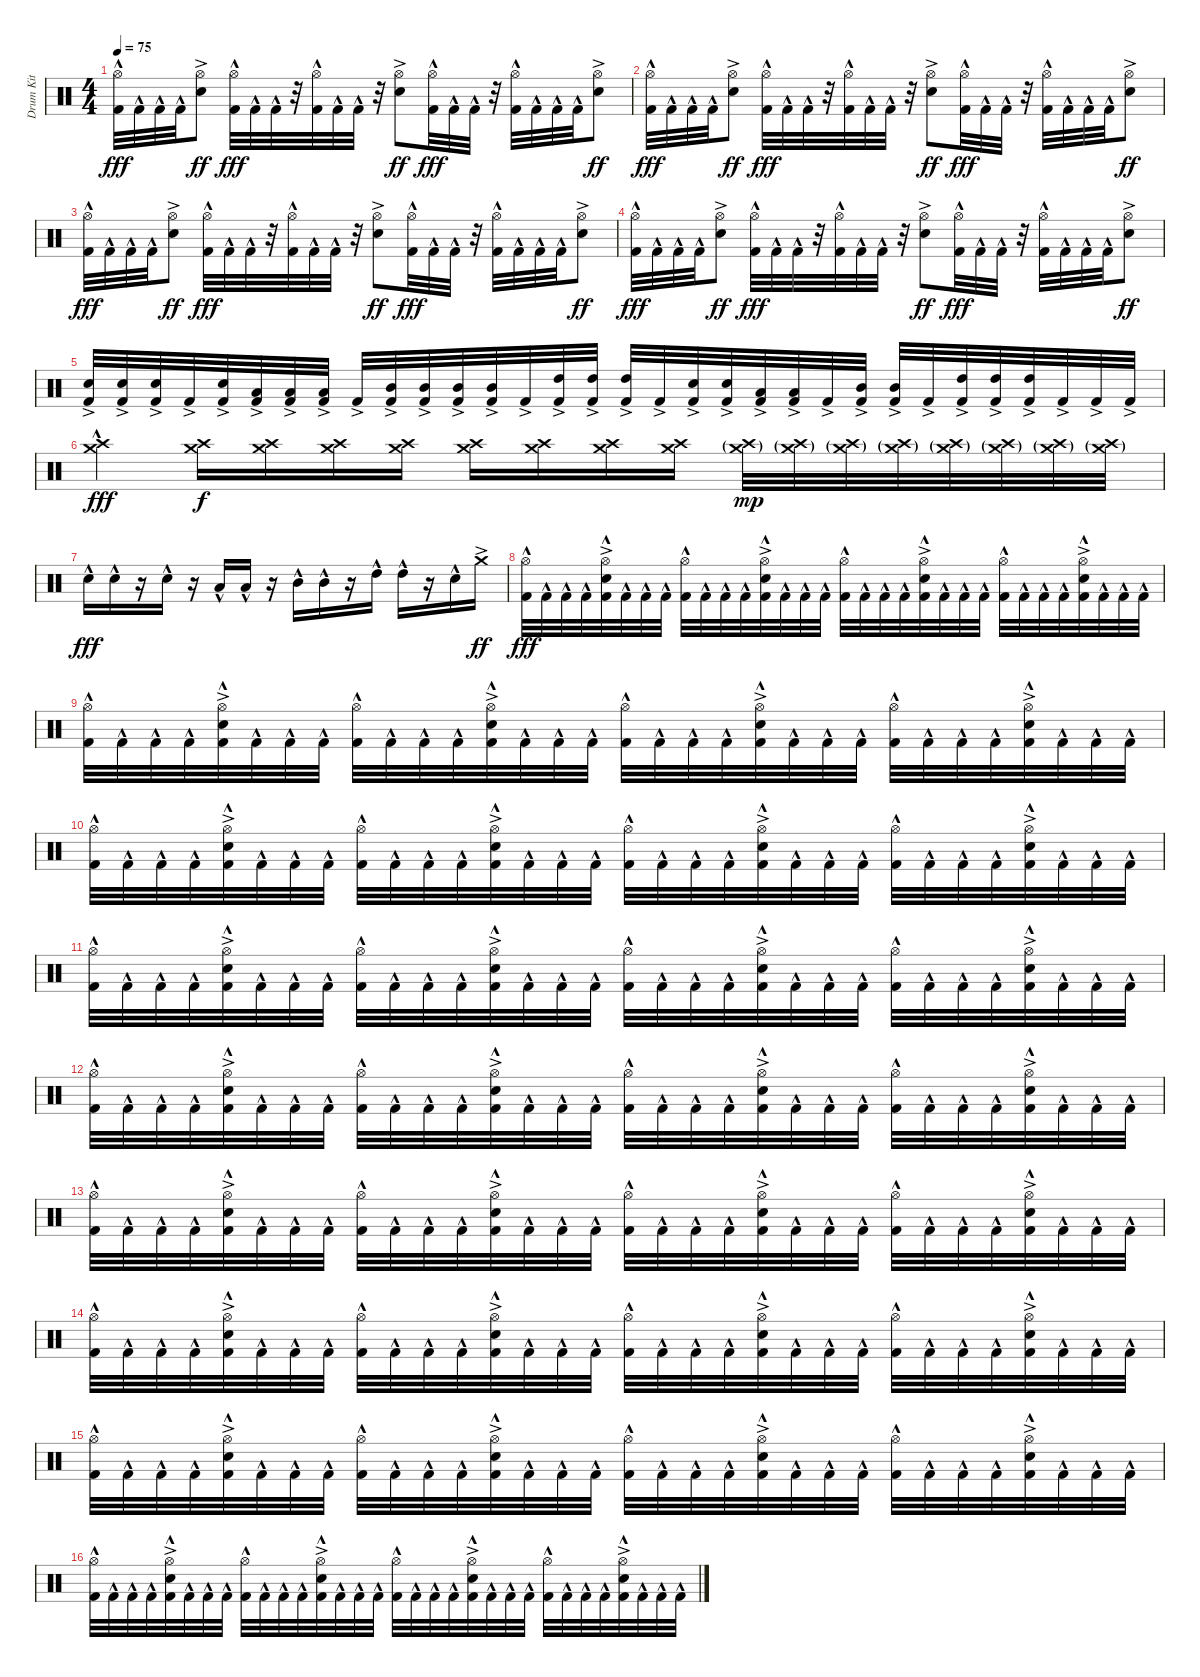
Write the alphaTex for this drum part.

\track ("Drum Kit" "Drum Kit") {instrument percussion}
\staff {score}
\articulation defaults
\ts (4 4)
\tempo 75
\clef neutral
\ks c
("Hi-Hat (open)" "Kick (hit) 2"{hac}).32{dy fff} "Kick (hit) 2"{hac}.32 "Kick (hit) 2"{hac}.32 "Kick (hit) 2"{hac}.32 ("Hi-Hat (open)" "Snare (hit) 2"{ac}).8{dy ff} ("Hi-Hat (open)" "Kick (hit) 2"{hac}).32{dy fff} "Kick (hit) 2"{hac}.32 "Kick (hit) 2"{hac}.32 r.32 ("Hi-Hat (open)" "Kick (hit) 2"{hac}).32 "Kick (hit) 2"{hac}.32 "Kick (hit) 2"{hac}.32 r.32 ("Hi-Hat (open)" "Snare (hit) 2"{ac}).8{dy ff} ("Hi-Hat (open)" "Kick (hit) 2"{hac}).32{dy fff} "Kick (hit) 2"{hac}.32 "Kick (hit) 2"{hac}.32 r.32 ("Hi-Hat (open)" "Kick (hit) 2"{hac}).32 "Kick (hit) 2"{hac}.32 "Kick (hit) 2"{hac}.32 "Kick (hit) 2"{hac}.32 ("Hi-Hat (open)" "Snare (hit) 2"{ac}).8{dy ff} |
("Hi-Hat (open)" "Kick (hit) 2"{hac}).32{dy fff} "Kick (hit) 2"{hac}.32 "Kick (hit) 2"{hac}.32 "Kick (hit) 2"{hac}.32 ("Hi-Hat (open)" "Snare (hit) 2"{ac}).8{dy ff} ("Hi-Hat (open)" "Kick (hit) 2"{hac}).32{dy fff} "Kick (hit) 2"{hac}.32 "Kick (hit) 2"{hac}.32 r.32 ("Hi-Hat (open)" "Kick (hit) 2"{hac}).32 "Kick (hit) 2"{hac}.32 "Kick (hit) 2"{hac}.32 r.32 ("Hi-Hat (open)" "Snare (hit) 2"{ac}).8{dy ff} ("Hi-Hat (open)" "Kick (hit) 2"{hac}).32{dy fff} "Kick (hit) 2"{hac}.32 "Kick (hit) 2"{hac}.32 r.32 ("Hi-Hat (open)" "Kick (hit) 2"{hac}).32 "Kick (hit) 2"{hac}.32 "Kick (hit) 2"{hac}.32 "Kick (hit) 2"{hac}.32 ("Hi-Hat (open)" "Snare (hit) 2"{ac}).8{dy ff} |
("Hi-Hat (open)" "Kick (hit) 2"{hac}).32{dy fff} "Kick (hit) 2"{hac}.32 "Kick (hit) 2"{hac}.32 "Kick (hit) 2"{hac}.32 ("Hi-Hat (open)" "Snare (hit) 2"{ac}).8{dy ff} ("Hi-Hat (open)" "Kick (hit) 2"{hac}).32{dy fff} "Kick (hit) 2"{hac}.32 "Kick (hit) 2"{hac}.32 r.32 ("Hi-Hat (open)" "Kick (hit) 2"{hac}).32 "Kick (hit) 2"{hac}.32 "Kick (hit) 2"{hac}.32 r.32 ("Hi-Hat (open)" "Snare (hit) 2"{ac}).8{dy ff} ("Hi-Hat (open)" "Kick (hit) 2"{hac}).32{dy fff} "Kick (hit) 2"{hac}.32 "Kick (hit) 2"{hac}.32 r.32 ("Hi-Hat (open)" "Kick (hit) 2"{hac}).32 "Kick (hit) 2"{hac}.32 "Kick (hit) 2"{hac}.32 "Kick (hit) 2"{hac}.32 ("Hi-Hat (open)" "Snare (hit) 2"{ac}).8{dy ff} |
("Hi-Hat (open)" "Kick (hit) 2"{hac}).32{dy fff} "Kick (hit) 2"{hac}.32 "Kick (hit) 2"{hac}.32 "Kick (hit) 2"{hac}.32 ("Hi-Hat (open)" "Snare (hit) 2"{ac}).8{dy ff} ("Hi-Hat (open)" "Kick (hit) 2"{hac}).32{dy fff} "Kick (hit) 2"{hac}.32 "Kick (hit) 2"{hac}.32 r.32 ("Hi-Hat (open)" "Kick (hit) 2"{hac}).32 "Kick (hit) 2"{hac}.32 "Kick (hit) 2"{hac}.32 r.32 ("Hi-Hat (open)" "Snare (hit) 2"{ac}).8{dy ff} ("Hi-Hat (open)" "Kick (hit) 2"{hac}).32{dy fff} "Kick (hit) 2"{hac}.32 "Kick (hit) 2"{hac}.32 r.32 ("Hi-Hat (open)" "Kick (hit) 2"{hac}).32 "Kick (hit) 2"{hac}.32 "Kick (hit) 2"{hac}.32 "Kick (hit) 2"{hac}.32 ("Hi-Hat (open)" "Snare (hit) 2"{ac}).8{dy ff} |
("Snare (hit) 2"{ac} "Kick (hit) 2"{ac}).32 ("Snare (hit) 2"{ac} "Kick (hit) 2"{ac}).32 ("Snare (hit) 2"{ac} "Kick (hit) 2"{ac}).32 "Kick (hit) 2"{ac}.32 ("Snare (hit) 2"{ac} "Kick (hit) 2"{ac}).32 ("Low Tom (hit)"{ac} "Kick (hit) 2"{ac}).32 ("Low Tom (hit)"{ac} "Kick (hit) 2"{ac}).32 ("Low Tom (hit)"{ac} "Kick (hit) 2"{ac}).32 "Kick (hit) 2"{ac}.32 ("Mid Tom (hit)"{ac} "Kick (hit) 2"{ac}).32 ("Mid Tom (hit)"{ac} "Kick (hit) 2"{ac}).32 ("Mid Tom (hit)"{ac} "Kick (hit) 2"{ac}).32 ("Mid Tom (hit)"{ac} "Kick (hit) 2"{ac}).32 "Kick (hit) 2"{ac}.32 ("High Tom (hit)"{ac} "Kick (hit) 2"{ac}).32 ("High Tom (hit)"{ac} "Kick (hit) 2"{ac}).32 ("High Tom (hit)"{ac} "Kick (hit) 2"{ac}).32 "Kick (hit) 2"{ac}.32 ("Snare (hit) 2"{ac} "Kick (hit) 2"{ac}).32 ("Snare (hit) 2"{ac} "Kick (hit) 2"{ac}).32 ("Low Tom (hit)"{ac} "Kick (hit) 2"{ac}).32 ("Low Tom (hit)"{ac} "Kick (hit) 2"{ac}).32 "Kick (hit) 2"{ac}.32 ("Mid Tom (hit)"{ac} "Kick (hit) 2"{ac}).32 ("Mid Tom (hit)"{ac} "Kick (hit) 2"{ac}).32 "Kick (hit) 2"{ac}.32 ("High Tom (hit)"{ac} "Kick (hit) 2"{ac}).32 ("High Tom (hit)"{ac} "Kick (hit) 2"{ac}).32 ("High Tom (hit)"{ac} "Kick (hit) 2"{ac}).32 "Kick (hit) 2"{ac}.32 "Kick (hit) 2"{ac}.32 "Kick (hit) 2"{ac}.32 |
("Crash medium (hit)"{hac} "Crash high (hit)"{hac}).4{dy fff} ("Crash high (hit)" "Crash medium (hit)").16{dy f} ("Crash high (hit)" "Crash medium (hit)").16 ("Crash high (hit)" "Crash medium (hit)").16 ("Crash high (hit)" "Crash medium (hit)").16 ("Crash high (hit)" "Crash medium (hit)").16 ("Crash high (hit)" "Crash medium (hit)").16 ("Crash high (hit)" "Crash medium (hit)").16 ("Crash high (hit)" "Crash medium (hit)").16 ("Crash high (hit)"{g} "Crash medium (hit)"{g}).32{dy mp} ("Crash high (hit)"{g} "Crash medium (hit)"{g}).32 ("Crash high (hit)"{g} "Crash medium (hit)"{g}).32 ("Crash high (hit)"{g} "Crash medium (hit)"{g}).32 ("Crash high (hit)"{g} "Crash medium (hit)"{g}).32 ("Crash high (hit)"{g} "Crash medium (hit)"{g}).32 ("Crash high (hit)"{g} "Crash medium (hit)"{g}).32 ("Crash high (hit)"{g} "Crash medium (hit)"{g}).32 |
"Snare (hit) 2"{hac}.16{dy fff} "Snare (hit) 2"{hac}.16 r.16 "Snare (hit) 2"{hac}.16 r.16 "Low Tom (hit)"{hac}.16 "Low Tom (hit)"{hac}.16 r.16 "Mid Tom (hit)"{hac}.16 "Mid Tom (hit)"{hac}.16 r.16 "High Tom (hit)"{hac}.16 "High Tom (hit)"{hac}.16 r.16 "Snare (hit) 2"{hac}.16 "Crash medium (hit)"{ac}.16{dy ff} |
("Hi-Hat (open)" "Kick (hit) 2"{hac}).32{dy fff} "Kick (hit) 2"{hac}.32 "Kick (hit) 2"{hac}.32 "Kick (hit) 2"{hac}.32 ("Hi-Hat (open)" "Snare (hit) 2"{ac} "Kick (hit) 2"{hac}).32 "Kick (hit) 2"{hac}.32 "Kick (hit) 2"{hac}.32 "Kick (hit) 2"{hac}.32 ("Hi-Hat (open)" "Kick (hit) 2"{hac}).32 "Kick (hit) 2"{hac}.32 "Kick (hit) 2"{hac}.32 "Kick (hit) 2"{hac}.32 ("Hi-Hat (open)" "Snare (hit) 2"{ac} "Kick (hit) 2"{hac}).32 "Kick (hit) 2"{hac}.32 "Kick (hit) 2"{hac}.32 "Kick (hit) 2"{hac}.32 ("Hi-Hat (open)" "Kick (hit) 2"{hac}).32 "Kick (hit) 2"{hac}.32 "Kick (hit) 2"{hac}.32 "Kick (hit) 2"{hac}.32 ("Hi-Hat (open)" "Snare (hit) 2"{ac} "Kick (hit) 2"{hac}).32 "Kick (hit) 2"{hac}.32 "Kick (hit) 2"{hac}.32 "Kick (hit) 2"{hac}.32 ("Hi-Hat (open)" "Kick (hit) 2"{hac}).32 "Kick (hit) 2"{hac}.32 "Kick (hit) 2"{hac}.32 "Kick (hit) 2"{hac}.32 ("Hi-Hat (open)" "Snare (hit) 2"{ac} "Kick (hit) 2"{hac}).32 "Kick (hit) 2"{hac}.32 "Kick (hit) 2"{hac}.32 "Kick (hit) 2"{hac}.32 |
("Hi-Hat (open)" "Kick (hit) 2"{hac}).32 "Kick (hit) 2"{hac}.32 "Kick (hit) 2"{hac}.32 "Kick (hit) 2"{hac}.32 ("Hi-Hat (open)" "Snare (hit) 2"{ac} "Kick (hit) 2"{hac}).32 "Kick (hit) 2"{hac}.32 "Kick (hit) 2"{hac}.32 "Kick (hit) 2"{hac}.32 ("Hi-Hat (open)" "Kick (hit) 2"{hac}).32 "Kick (hit) 2"{hac}.32 "Kick (hit) 2"{hac}.32 "Kick (hit) 2"{hac}.32 ("Hi-Hat (open)" "Snare (hit) 2"{ac} "Kick (hit) 2"{hac}).32 "Kick (hit) 2"{hac}.32 "Kick (hit) 2"{hac}.32 "Kick (hit) 2"{hac}.32 ("Hi-Hat (open)" "Kick (hit) 2"{hac}).32 "Kick (hit) 2"{hac}.32 "Kick (hit) 2"{hac}.32 "Kick (hit) 2"{hac}.32 ("Hi-Hat (open)" "Snare (hit) 2"{ac} "Kick (hit) 2"{hac}).32 "Kick (hit) 2"{hac}.32 "Kick (hit) 2"{hac}.32 "Kick (hit) 2"{hac}.32 ("Hi-Hat (open)" "Kick (hit) 2"{hac}).32 "Kick (hit) 2"{hac}.32 "Kick (hit) 2"{hac}.32 "Kick (hit) 2"{hac}.32 ("Hi-Hat (open)" "Snare (hit) 2"{ac} "Kick (hit) 2"{hac}).32 "Kick (hit) 2"{hac}.32 "Kick (hit) 2"{hac}.32 "Kick (hit) 2"{hac}.32 |
("Hi-Hat (open)" "Kick (hit) 2"{hac}).32 "Kick (hit) 2"{hac}.32 "Kick (hit) 2"{hac}.32 "Kick (hit) 2"{hac}.32 ("Hi-Hat (open)" "Snare (hit) 2"{ac} "Kick (hit) 2"{hac}).32 "Kick (hit) 2"{hac}.32 "Kick (hit) 2"{hac}.32 "Kick (hit) 2"{hac}.32 ("Hi-Hat (open)" "Kick (hit) 2"{hac}).32 "Kick (hit) 2"{hac}.32 "Kick (hit) 2"{hac}.32 "Kick (hit) 2"{hac}.32 ("Hi-Hat (open)" "Snare (hit) 2"{ac} "Kick (hit) 2"{hac}).32 "Kick (hit) 2"{hac}.32 "Kick (hit) 2"{hac}.32 "Kick (hit) 2"{hac}.32 ("Hi-Hat (open)" "Kick (hit) 2"{hac}).32 "Kick (hit) 2"{hac}.32 "Kick (hit) 2"{hac}.32 "Kick (hit) 2"{hac}.32 ("Hi-Hat (open)" "Snare (hit) 2"{ac} "Kick (hit) 2"{hac}).32 "Kick (hit) 2"{hac}.32 "Kick (hit) 2"{hac}.32 "Kick (hit) 2"{hac}.32 ("Hi-Hat (open)" "Kick (hit) 2"{hac}).32 "Kick (hit) 2"{hac}.32 "Kick (hit) 2"{hac}.32 "Kick (hit) 2"{hac}.32 ("Hi-Hat (open)" "Snare (hit) 2"{ac} "Kick (hit) 2"{hac}).32 "Kick (hit) 2"{hac}.32 "Kick (hit) 2"{hac}.32 "Kick (hit) 2"{hac}.32 |
("Hi-Hat (open)" "Kick (hit) 2"{hac}).32 "Kick (hit) 2"{hac}.32 "Kick (hit) 2"{hac}.32 "Kick (hit) 2"{hac}.32 ("Hi-Hat (open)" "Snare (hit) 2"{ac} "Kick (hit) 2"{hac}).32 "Kick (hit) 2"{hac}.32 "Kick (hit) 2"{hac}.32 "Kick (hit) 2"{hac}.32 ("Hi-Hat (open)" "Kick (hit) 2"{hac}).32 "Kick (hit) 2"{hac}.32 "Kick (hit) 2"{hac}.32 "Kick (hit) 2"{hac}.32 ("Hi-Hat (open)" "Snare (hit) 2"{ac} "Kick (hit) 2"{hac}).32 "Kick (hit) 2"{hac}.32 "Kick (hit) 2"{hac}.32 "Kick (hit) 2"{hac}.32 ("Hi-Hat (open)" "Kick (hit) 2"{hac}).32 "Kick (hit) 2"{hac}.32 "Kick (hit) 2"{hac}.32 "Kick (hit) 2"{hac}.32 ("Hi-Hat (open)" "Snare (hit) 2"{ac} "Kick (hit) 2"{hac}).32 "Kick (hit) 2"{hac}.32 "Kick (hit) 2"{hac}.32 "Kick (hit) 2"{hac}.32 ("Hi-Hat (open)" "Kick (hit) 2"{hac}).32 "Kick (hit) 2"{hac}.32 "Kick (hit) 2"{hac}.32 "Kick (hit) 2"{hac}.32 ("Hi-Hat (open)" "Snare (hit) 2"{ac} "Kick (hit) 2"{hac}).32 "Kick (hit) 2"{hac}.32 "Kick (hit) 2"{hac}.32 "Kick (hit) 2"{hac}.32 |
("Hi-Hat (open)" "Kick (hit) 2"{hac}).32 "Kick (hit) 2"{hac}.32 "Kick (hit) 2"{hac}.32 "Kick (hit) 2"{hac}.32 ("Hi-Hat (open)" "Snare (hit) 2"{ac} "Kick (hit) 2"{hac}).32 "Kick (hit) 2"{hac}.32 "Kick (hit) 2"{hac}.32 "Kick (hit) 2"{hac}.32 ("Hi-Hat (open)" "Kick (hit) 2"{hac}).32 "Kick (hit) 2"{hac}.32 "Kick (hit) 2"{hac}.32 "Kick (hit) 2"{hac}.32 ("Hi-Hat (open)" "Snare (hit) 2"{ac} "Kick (hit) 2"{hac}).32 "Kick (hit) 2"{hac}.32 "Kick (hit) 2"{hac}.32 "Kick (hit) 2"{hac}.32 ("Hi-Hat (open)" "Kick (hit) 2"{hac}).32 "Kick (hit) 2"{hac}.32 "Kick (hit) 2"{hac}.32 "Kick (hit) 2"{hac}.32 ("Hi-Hat (open)" "Snare (hit) 2"{ac} "Kick (hit) 2"{hac}).32 "Kick (hit) 2"{hac}.32 "Kick (hit) 2"{hac}.32 "Kick (hit) 2"{hac}.32 ("Hi-Hat (open)" "Kick (hit) 2"{hac}).32 "Kick (hit) 2"{hac}.32 "Kick (hit) 2"{hac}.32 "Kick (hit) 2"{hac}.32 ("Hi-Hat (open)" "Snare (hit) 2"{ac} "Kick (hit) 2"{hac}).32 "Kick (hit) 2"{hac}.32 "Kick (hit) 2"{hac}.32 "Kick (hit) 2"{hac}.32 |
("Hi-Hat (open)" "Kick (hit) 2"{hac}).32 "Kick (hit) 2"{hac}.32 "Kick (hit) 2"{hac}.32 "Kick (hit) 2"{hac}.32 ("Hi-Hat (open)" "Snare (hit) 2"{ac} "Kick (hit) 2"{hac}).32 "Kick (hit) 2"{hac}.32 "Kick (hit) 2"{hac}.32 "Kick (hit) 2"{hac}.32 ("Hi-Hat (open)" "Kick (hit) 2"{hac}).32 "Kick (hit) 2"{hac}.32 "Kick (hit) 2"{hac}.32 "Kick (hit) 2"{hac}.32 ("Hi-Hat (open)" "Snare (hit) 2"{ac} "Kick (hit) 2"{hac}).32 "Kick (hit) 2"{hac}.32 "Kick (hit) 2"{hac}.32 "Kick (hit) 2"{hac}.32 ("Hi-Hat (open)" "Kick (hit) 2"{hac}).32 "Kick (hit) 2"{hac}.32 "Kick (hit) 2"{hac}.32 "Kick (hit) 2"{hac}.32 ("Hi-Hat (open)" "Snare (hit) 2"{ac} "Kick (hit) 2"{hac}).32 "Kick (hit) 2"{hac}.32 "Kick (hit) 2"{hac}.32 "Kick (hit) 2"{hac}.32 ("Hi-Hat (open)" "Kick (hit) 2"{hac}).32 "Kick (hit) 2"{hac}.32 "Kick (hit) 2"{hac}.32 "Kick (hit) 2"{hac}.32 ("Hi-Hat (open)" "Snare (hit) 2"{ac} "Kick (hit) 2"{hac}).32 "Kick (hit) 2"{hac}.32 "Kick (hit) 2"{hac}.32 "Kick (hit) 2"{hac}.32 |
("Hi-Hat (open)" "Kick (hit) 2"{hac}).32 "Kick (hit) 2"{hac}.32 "Kick (hit) 2"{hac}.32 "Kick (hit) 2"{hac}.32 ("Hi-Hat (open)" "Snare (hit) 2"{ac} "Kick (hit) 2"{hac}).32 "Kick (hit) 2"{hac}.32 "Kick (hit) 2"{hac}.32 "Kick (hit) 2"{hac}.32 ("Hi-Hat (open)" "Kick (hit) 2"{hac}).32 "Kick (hit) 2"{hac}.32 "Kick (hit) 2"{hac}.32 "Kick (hit) 2"{hac}.32 ("Hi-Hat (open)" "Snare (hit) 2"{ac} "Kick (hit) 2"{hac}).32 "Kick (hit) 2"{hac}.32 "Kick (hit) 2"{hac}.32 "Kick (hit) 2"{hac}.32 ("Hi-Hat (open)" "Kick (hit) 2"{hac}).32 "Kick (hit) 2"{hac}.32 "Kick (hit) 2"{hac}.32 "Kick (hit) 2"{hac}.32 ("Hi-Hat (open)" "Snare (hit) 2"{ac} "Kick (hit) 2"{hac}).32 "Kick (hit) 2"{hac}.32 "Kick (hit) 2"{hac}.32 "Kick (hit) 2"{hac}.32 ("Hi-Hat (open)" "Kick (hit) 2"{hac}).32 "Kick (hit) 2"{hac}.32 "Kick (hit) 2"{hac}.32 "Kick (hit) 2"{hac}.32 ("Hi-Hat (open)" "Snare (hit) 2"{ac} "Kick (hit) 2"{hac}).32 "Kick (hit) 2"{hac}.32 "Kick (hit) 2"{hac}.32 "Kick (hit) 2"{hac}.32 |
("Hi-Hat (open)" "Kick (hit) 2"{hac}).32 "Kick (hit) 2"{hac}.32 "Kick (hit) 2"{hac}.32 "Kick (hit) 2"{hac}.32 ("Hi-Hat (open)" "Snare (hit) 2"{ac} "Kick (hit) 2"{hac}).32 "Kick (hit) 2"{hac}.32 "Kick (hit) 2"{hac}.32 "Kick (hit) 2"{hac}.32 ("Hi-Hat (open)" "Kick (hit) 2"{hac}).32 "Kick (hit) 2"{hac}.32 "Kick (hit) 2"{hac}.32 "Kick (hit) 2"{hac}.32 ("Hi-Hat (open)" "Snare (hit) 2"{ac} "Kick (hit) 2"{hac}).32 "Kick (hit) 2"{hac}.32 "Kick (hit) 2"{hac}.32 "Kick (hit) 2"{hac}.32 ("Hi-Hat (open)" "Kick (hit) 2"{hac}).32 "Kick (hit) 2"{hac}.32 "Kick (hit) 2"{hac}.32 "Kick (hit) 2"{hac}.32 ("Hi-Hat (open)" "Snare (hit) 2"{ac} "Kick (hit) 2"{hac}).32 "Kick (hit) 2"{hac}.32 "Kick (hit) 2"{hac}.32 "Kick (hit) 2"{hac}.32 ("Hi-Hat (open)" "Kick (hit) 2"{hac}).32 "Kick (hit) 2"{hac}.32 "Kick (hit) 2"{hac}.32 "Kick (hit) 2"{hac}.32 ("Hi-Hat (open)" "Snare (hit) 2"{ac} "Kick (hit) 2"{hac}).32 "Kick (hit) 2"{hac}.32 "Kick (hit) 2"{hac}.32 "Kick (hit) 2"{hac}.32 |
("Hi-Hat (open)" "Kick (hit) 2"{hac}).32 "Kick (hit) 2"{hac}.32 "Kick (hit) 2"{hac}.32 "Kick (hit) 2"{hac}.32 ("Hi-Hat (open)" "Snare (hit) 2"{ac} "Kick (hit) 2"{hac}).32 "Kick (hit) 2"{hac}.32 "Kick (hit) 2"{hac}.32 "Kick (hit) 2"{hac}.32 ("Hi-Hat (open)" "Kick (hit) 2"{hac}).32 "Kick (hit) 2"{hac}.32 "Kick (hit) 2"{hac}.32 "Kick (hit) 2"{hac}.32 ("Hi-Hat (open)" "Snare (hit) 2"{ac} "Kick (hit) 2"{hac}).32 "Kick (hit) 2"{hac}.32 "Kick (hit) 2"{hac}.32 "Kick (hit) 2"{hac}.32 ("Hi-Hat (open)" "Kick (hit) 2"{hac}).32 "Kick (hit) 2"{hac}.32 "Kick (hit) 2"{hac}.32 "Kick (hit) 2"{hac}.32 ("Hi-Hat (open)" "Snare (hit) 2"{ac} "Kick (hit) 2"{hac}).32 "Kick (hit) 2"{hac}.32 "Kick (hit) 2"{hac}.32 "Kick (hit) 2"{hac}.32 ("Hi-Hat (open)" "Kick (hit) 2"{hac}).32 "Kick (hit) 2"{hac}.32 "Kick (hit) 2"{hac}.32 "Kick (hit) 2"{hac}.32 ("Hi-Hat (open)" "Snare (hit) 2"{ac} "Kick (hit) 2"{hac}).32 "Kick (hit) 2"{hac}.32 "Kick (hit) 2"{hac}.32 "Kick (hit) 2"{hac}.32
